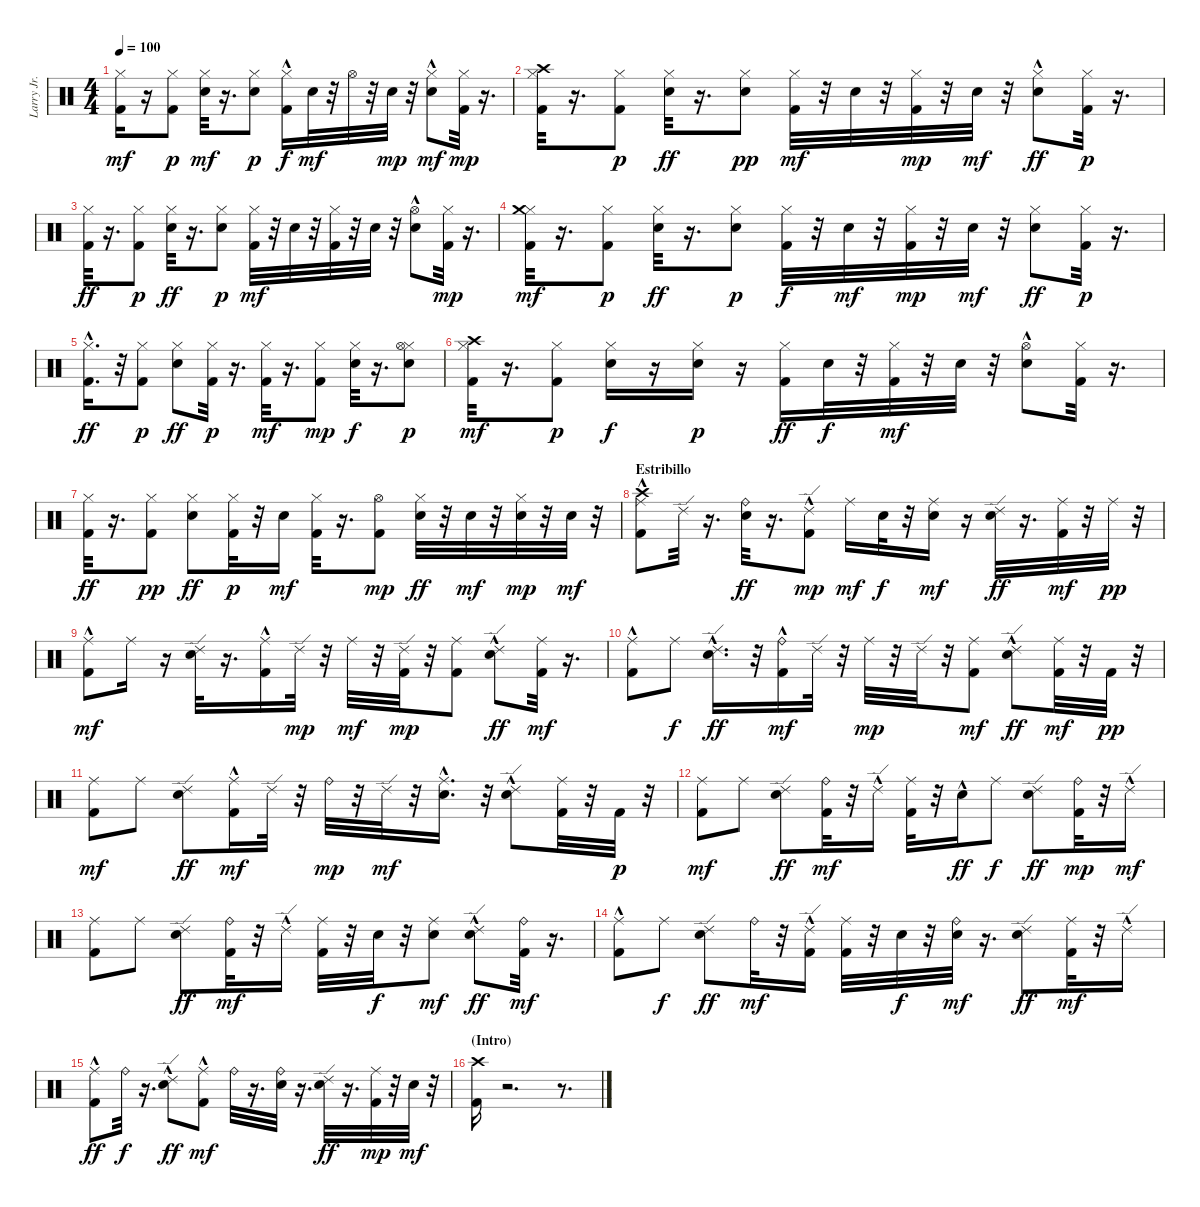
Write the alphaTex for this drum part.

\track ("Larry Jr." "Larry Jr.") {instrument percussion}
\staff {score}
\articulation defaults
\ts (4 4)
\tempo 100
\clef neutral
\ks c
("Kick (hit) 2" "Hi-Hat (closed)").16{dy mf} r.16 ("Kick (hit) 2" "Hi-Hat (closed)").8{dy p} ("Electric Snare (hit)" "Hi-Hat (closed)").32{dy mf} r.16{d} ("Electric Snare (hit)" "Hi-Hat (closed)").8{dy p} ("Kick (hit) 2"{hac} "Hi-Hat (closed)").16{dy f} "Electric Snare (hit)".32{dy mf} r.32 "Hi-Hat (open)".32 r.32 "Electric Snare (hit)".32{dy mp} r.32 ("Electric Snare (hit)"{hac} "Hi-Hat (closed)").8{dy mf} ("Kick (hit) 2" "Hi-Hat (closed)").32{dy mp} r.16{d} |
("Kick (hit) 2" "Hi-Hat (closed)" "Crash high (hit)").32 r.16{d} ("Kick (hit) 2" "Hi-Hat (closed)").8{dy p} ("Electric Snare (hit)" "Hi-Hat (closed)").32{dy ff} r.16{d} ("Electric Snare (hit)" "Hi-Hat (closed)").8{dy pp} ("Kick (hit) 2" "Hi-Hat (closed)").32{dy mf} r.32 "Electric Snare (hit)".32 r.32 ("Kick (hit) 2" "Hi-Hat (closed)").32{dy mp} r.32 "Electric Snare (hit)".32{dy mf} r.32 ("Electric Snare (hit)"{hac} "Hi-Hat (closed)").8{dy ff} ("Kick (hit) 2" "Hi-Hat (closed)").32{dy p} r.16{d} |
("Kick (hit) 2" "Hi-Hat (closed)").32{dy ff} r.16{d} ("Kick (hit) 2" "Hi-Hat (closed)").8{dy p} ("Electric Snare (hit)" "Hi-Hat (closed)").32{dy ff} r.16{d} ("Electric Snare (hit)" "Hi-Hat (closed)").8{dy p} ("Kick (hit) 2" "Hi-Hat (closed)").32{dy mf} r.32 "Electric Snare (hit)".32 r.32 ("Kick (hit) 2" "Hi-Hat (closed)").32 r.32 "Electric Snare (hit)".32 r.32 ("Electric Snare (hit)"{hac} "Hi-Hat (open)").8 ("Kick (hit) 2" "Hi-Hat (closed)").32{dy mp} r.16{d} |
("Kick (hit) 2" "Hi-Hat (closed)" "Crash medium (hit)").32{dy mf} r.16{d} ("Kick (hit) 2" "Hi-Hat (closed)").8{dy p} ("Electric Snare (hit)" "Hi-Hat (closed)").32{dy ff} r.16{d} ("Electric Snare (hit)" "Hi-Hat (closed)").8{dy p} ("Kick (hit) 2" "Hi-Hat (closed)").32{dy f} r.32 "Electric Snare (hit)".32{dy mf} r.32 ("Kick (hit) 2" "Hi-Hat (closed)").32{dy mp} r.32 "Electric Snare (hit)".32{dy mf} r.32 ("Electric Snare (hit)" "Hi-Hat (closed)").8{dy ff} ("Kick (hit) 2" "Hi-Hat (closed)").32{dy p} r.16{d} |
("Kick (hit) 2"{hac} "Hi-Hat (closed)").16{d dy ff} r.32 ("Kick (hit) 2" "Hi-Hat (closed)").8{dy p} ("Electric Snare (hit)" "Hi-Hat (closed)").8{dy ff} ("Kick (hit) 2" "Hi-Hat (closed)").32{dy p} r.16{d} ("Kick (hit) 2" "Hi-Hat (closed)").32{dy mf} r.16{d} ("Kick (hit) 2" "Hi-Hat (closed)").8{dy mp} ("Electric Snare (hit)" "Hi-Hat (closed)").32{dy f} r.16{d} ("Electric Snare (hit)" "Hi-Hat (closed)" "Hi-Hat (open)").8{dy p} |
("Kick (hit) 2" "Hi-Hat (closed)" "Crash high (hit)").32{dy mf} r.16{d} ("Kick (hit) 2" "Hi-Hat (closed)").8{dy p} ("Electric Snare (hit)" "Hi-Hat (closed)").16{dy f} r.16 ("Electric Snare (hit)" "Hi-Hat (closed)").16{dy p} r.16 ("Kick (hit) 2" "Hi-Hat (closed)").16{dy ff} "Electric Snare (hit)".32{dy f} r.32 ("Kick (hit) 2" "Hi-Hat (closed)").32{dy mf} r.32 "Electric Snare (hit)".32 r.32 ("Electric Snare (hit)"{hac} "Hi-Hat (open)").8 ("Kick (hit) 2" "Hi-Hat (closed)").32 r.16{d} |
("Kick (hit) 2" "Hi-Hat (closed)").32{dy ff} r.16{d} ("Kick (hit) 2" "Hi-Hat (closed)").8{dy pp} ("Electric Snare (hit)" "Hi-Hat (closed)").8{dy ff} ("Kick (hit) 2" "Hi-Hat (closed)").32{dy p} r.32 "Electric Snare (hit)".16{dy mf} ("Kick (hit) 2" "Hi-Hat (closed)").32 r.16{d} ("Kick (hit) 2" "Hi-Hat (open)").8{dy mp} ("Electric Snare (hit)" "Hi-Hat (closed)").32{dy ff} r.32 "Electric Snare (hit)".32{dy mf} r.32 ("Electric Snare (hit)" "Hi-Hat (closed)").32{dy mp} r.32 "Electric Snare (hit)".32{dy mf} r.32 |
\section ("" "Estribillo")
("Kick (hit) 2"{hac} "Crash high (hit)" "Ride (middle)").8 "Ride (edge) 2".32 r.16{d} ("Electric Snare (hit)" "Ride (bell)").32{dy ff} r.16{d} ("Kick (hit) 2"{hac} "Ride (edge) 2").8{dy mp} "Ride (middle)".16{dy mf} "Electric Snare (hit)".32{dy f} r.32 ("Electric Snare (hit)" "Ride (middle)").16{dy mf} r.16 ("Electric Snare (hit)" "Ride (edge) 2").32{dy ff} r.16{d} ("Kick (hit) 2" "Ride (middle)").32{dy mf} r.32 "Ride (middle)".32{dy pp} r.32 |
("Kick (hit) 2"{hac} "Ride (middle)").8{dy mf} "Ride (middle)".16 r.16 ("Electric Snare (hit)" "Ride (edge) 2").32 r.16{d} ("Kick (hit) 2"{hac} "Ride (middle)").16 "Ride (edge) 2".32{dy mp} r.32 "Ride (middle)".32{dy mf} r.32 ("Kick (hit) 2" "Ride (edge) 2").32{dy mp} r.32 ("Kick (hit) 2" "Ride (middle)").8 ("Electric Snare (hit)" "Ride (edge) 2"{hac}).8{dy ff} ("Kick (hit) 2" "Ride (middle)").32{dy mf} r.16{d} |
("Kick (hit) 2"{hac} "Ride (middle)").8 "Ride (middle)".8{dy f} ("Electric Snare (hit)" "Ride (edge) 2"{hac}).16{d dy ff} r.32 ("Kick (hit) 2"{hac} "Ride (bell)").16{dy mf} "Ride (edge) 2".32 r.32 "Ride (middle)".32{dy mp} r.32 "Ride (edge) 2".32 r.32 ("Kick (hit) 2" "Ride (middle)").8{dy mf} ("Electric Snare (hit)" "Ride (edge) 2"{hac}).8{dy ff} ("Kick (hit) 2" "Ride (middle)").32{dy mf} r.32 "Kick (hit) 2".32{dy pp} r.32 |
("Kick (hit) 2" "Ride (middle)").8{dy mf} "Ride (middle)".8 ("Electric Snare (hit)" "Ride (edge) 2").8{dy ff} ("Kick (hit) 2"{hac} "Ride (middle)").16{dy mf} "Ride (edge) 2".32 r.32 "Ride (bell)".32{dy mp} r.32 "Ride (edge) 2".32{dy mf} r.32 ("Electric Snare (hit)" "Ride (middle)"{hac}).16{d} r.32 ("Electric Snare (hit)" "Ride (edge) 2"{hac}).8 ("Kick (hit) 2" "Ride (middle)").32 r.32 "Kick (hit) 2".32{dy p} r.32 |
("Kick (hit) 2" "Ride (middle)").8{dy mf} "Ride (middle)".8 ("Electric Snare (hit)" "Ride (edge) 2").8{dy ff} ("Kick (hit) 2" "Ride (bell)").32{dy mf} r.32 "Ride (edge) 2"{hac}.16 ("Kick (hit) 2" "Ride (middle)").32 r.32 "Electric Snare (hit)"{hac}.16{dy ff} "Ride (middle)".8{dy f} ("Electric Snare (hit)" "Ride (edge) 2").8{dy ff} ("Kick (hit) 2" "Ride (bell)").32{dy mp} r.32 "Ride (edge) 2"{hac}.16{dy mf} |
("Kick (hit) 2" "Ride (middle)").8 "Ride (middle)".8 ("Electric Snare (hit)" "Ride (edge) 2").8{dy ff} ("Kick (hit) 2" "Ride (bell)").32{dy mf} r.32 "Ride (edge) 2"{hac}.16 ("Kick (hit) 2" "Ride (middle)").32 r.32 "Electric Snare (hit)".32{dy f} r.32 ("Electric Snare (hit)" "Ride (middle)").8{dy mf} ("Electric Snare (hit)" "Ride (edge) 2"{hac}).8{dy ff} ("Kick (hit) 2" "Ride (bell)").32{dy mf} r.16{d} |
("Kick (hit) 2"{hac} "Ride (middle)").8 "Ride (middle)".8{dy f} ("Electric Snare (hit)" "Ride (edge) 2").8{dy ff} "Ride (bell)".32{dy mf} r.32 ("Kick (hit) 2" "Ride (edge) 2"{hac}).16 ("Kick (hit) 2" "Ride (middle)").32 r.32 "Electric Snare (hit)".32{dy f} r.32 ("Electric Snare (hit)" "Ride (bell)").32{dy mf} r.16{d} ("Electric Snare (hit)" "Ride (edge) 2").8{dy ff} ("Kick (hit) 2" "Ride (middle)").32{dy mf} r.32 "Ride (edge) 2"{hac}.16 |
("Kick (hit) 2"{hac} "Ride (middle)").8{dy ff} "Ride (bell)".32{dy f} r.16{d} ("Electric Snare (hit)" "Ride (edge) 2"{hac}).8{dy ff} ("Kick (hit) 2"{hac} "Ride (middle)").8{dy mf} "Ride (bell)".32 r.16{d} ("Electric Snare (hit)" "Ride (bell)").32 r.16{d} ("Electric Snare (hit)" "Ride (edge) 2").32{dy ff} r.16{d} ("Kick (hit) 2" "Ride (middle)").32{dy mp} r.32 "Electric Snare (hit)".32{dy mf} r.32 |
\section ("" "(Intro)")
("Kick (hit) 2" "Crash high (hit)").16 r.2{d} r.8{d}
